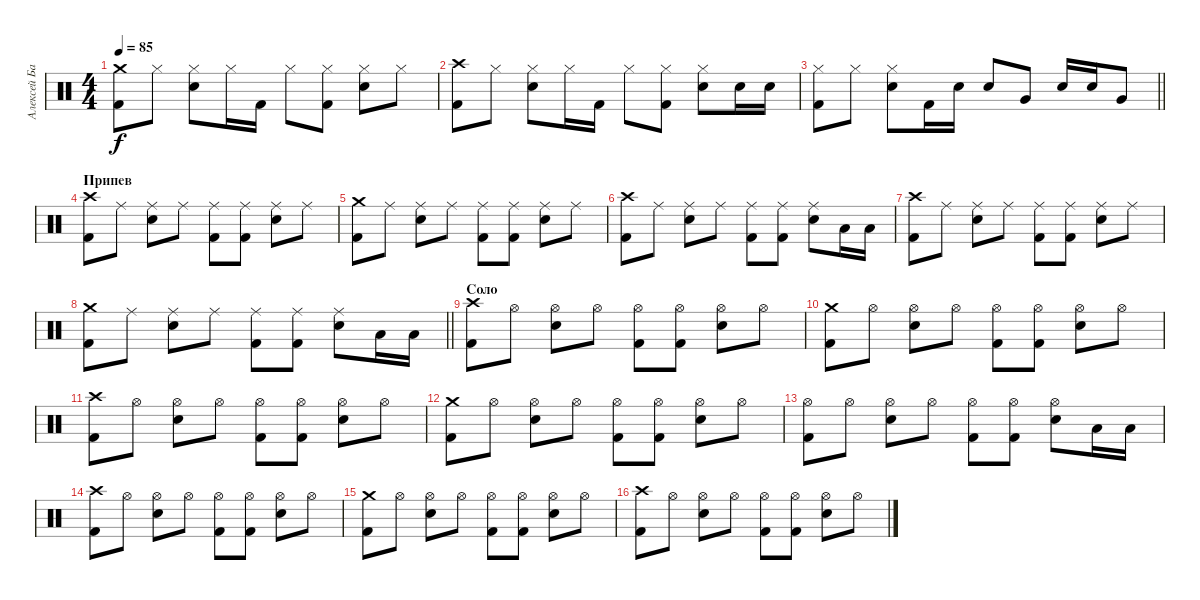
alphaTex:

\track ("Алексей Барзилович" "Алексей Ба") {instrument percussion}
\staff {score}
\articulation defaults
\ts (4 4)
\tempo 85
\clef neutral
\ks c
("Crash medium (hit)" "Kick (hit) 2").8{dy f} "Hi-Hat (closed)".8 ("Hi-Hat (closed)" "Electric Snare (hit)").8 "Hi-Hat (closed)".16 "Kick (hit) 2".16 "Hi-Hat (closed)".8 ("Hi-Hat (closed)" "Kick (hit) 2").8 ("Hi-Hat (closed)" "Electric Snare (hit)").8 "Hi-Hat (closed)".8 |
("Crash high (hit)" "Kick (hit) 2").8 "Hi-Hat (closed)".8 ("Hi-Hat (closed)" "Electric Snare (hit)").8 "Hi-Hat (closed)".16 "Kick (hit) 2".16 "Hi-Hat (closed)".8 ("Hi-Hat (closed)" "Kick (hit) 2").8 ("Hi-Hat (closed)" "Electric Snare (hit)").8 "Electric Snare (hit)".16 "Electric Snare (hit)".16 |
\barLineRight lightlight
("Hi-Hat (closed)" "Kick (hit) 2").8 "Hi-Hat (closed)".8 ("Hi-Hat (closed)" "Electric Snare (hit)").8 "Kick (hit) 2".16 "Electric Snare (hit)".16 "Electric Snare (hit)".8 "Very Low Tom (hit)".8 "Electric Snare (hit)".16 "Electric Snare (hit)".16 "Very Low Tom (hit)".8 |
\section ("" "Припев")
("Crash high (hit)" "Kick (hit) 2").8 "Ride (middle)".8 ("Ride (middle)" "Electric Snare (hit)").8 "Ride (middle)".8 ("Ride (middle)" "Kick (hit) 2").8 ("Ride (middle)" "Kick (hit) 2").8 ("Ride (middle)" "Electric Snare (hit)").8 "Ride (middle)".8 |
("Crash medium (hit)" "Kick (hit) 2").8 "Ride (middle)".8 ("Ride (middle)" "Electric Snare (hit)").8 "Ride (middle)".8 ("Ride (middle)" "Kick (hit) 2").8 ("Ride (middle)" "Kick (hit) 2").8 ("Ride (middle)" "Electric Snare (hit)").8 "Ride (middle)".8 |
("Crash high (hit)" "Kick (hit) 2").8 "Ride (middle)".8 ("Ride (middle)" "Electric Snare (hit)").8 "Ride (middle)".8 ("Ride (middle)" "Kick (hit) 2").8 ("Ride (middle)" "Kick (hit) 2").8 ("Ride (middle)" "Electric Snare (hit)").8 "Low Tom (hit)".16 "Low Tom (hit)".16 |
("Crash high (hit)" "Kick (hit) 2").8 "Ride (middle)".8 ("Ride (middle)" "Electric Snare (hit)").8 "Ride (middle)".8 ("Ride (middle)" "Kick (hit) 2").8 ("Ride (middle)" "Kick (hit) 2").8 ("Ride (middle)" "Electric Snare (hit)").8 "Ride (middle)".8 |
\barLineRight lightlight
("Crash medium (hit)" "Kick (hit) 2").8 "Ride (middle)".8 ("Ride (middle)" "Electric Snare (hit)").8 "Ride (middle)".8 ("Ride (middle)" "Kick (hit) 2").8 ("Ride (middle)" "Kick (hit) 2").8 ("Ride (middle)" "Electric Snare (hit)").8 "Low Tom (hit)".16 "Low Tom (hit)".16 |
\section ("" "Соло")
("Crash high (hit)" "Kick (hit) 2").8 "Hi-Hat (open)".8 ("Hi-Hat (open)" "Electric Snare (hit)").8 "Hi-Hat (open)".8 ("Hi-Hat (open)" "Kick (hit) 2").8 ("Hi-Hat (open)" "Kick (hit) 2").8 ("Hi-Hat (open)" "Electric Snare (hit)").8 "Hi-Hat (open)".8 |
("Crash medium (hit)" "Kick (hit) 2").8 "Hi-Hat (open)".8 ("Hi-Hat (open)" "Electric Snare (hit)").8 "Hi-Hat (open)".8 ("Hi-Hat (open)" "Kick (hit) 2").8 ("Hi-Hat (open)" "Kick (hit) 2").8 ("Hi-Hat (open)" "Electric Snare (hit)").8 "Hi-Hat (open)".8 |
("Crash high (hit)" "Kick (hit) 2").8 "Hi-Hat (open)".8 ("Hi-Hat (open)" "Electric Snare (hit)").8 "Hi-Hat (open)".8 ("Hi-Hat (open)" "Kick (hit) 2").8 ("Hi-Hat (open)" "Kick (hit) 2").8 ("Hi-Hat (open)" "Electric Snare (hit)").8 "Hi-Hat (open)".8 |
("Crash medium (hit)" "Kick (hit) 2").8 "Hi-Hat (open)".8 ("Hi-Hat (open)" "Electric Snare (hit)").8 "Hi-Hat (open)".8 ("Hi-Hat (open)" "Kick (hit) 2").8 ("Hi-Hat (open)" "Kick (hit) 2").8 ("Hi-Hat (open)" "Electric Snare (hit)").8 "Hi-Hat (open)".8 |
("Hi-Hat (open)" "Kick (hit) 2").8 "Hi-Hat (open)".8 ("Hi-Hat (open)" "Electric Snare (hit)").8 "Hi-Hat (open)".8 ("Hi-Hat (open)" "Kick (hit) 2").8 ("Hi-Hat (open)" "Kick (hit) 2").8 ("Hi-Hat (open)" "Electric Snare (hit)").8 "Low Tom (hit)".16 "Low Tom (hit)".16 |
("Crash high (hit)" "Kick (hit) 2").8 "Hi-Hat (open)".8 ("Hi-Hat (open)" "Electric Snare (hit)").8 "Hi-Hat (open)".8 ("Hi-Hat (open)" "Kick (hit) 2").8 ("Hi-Hat (open)" "Kick (hit) 2").8 ("Hi-Hat (open)" "Electric Snare (hit)").8 "Hi-Hat (open)".8 |
("Crash medium (hit)" "Kick (hit) 2").8 "Hi-Hat (open)".8 ("Hi-Hat (open)" "Electric Snare (hit)").8 "Hi-Hat (open)".8 ("Hi-Hat (open)" "Kick (hit) 2").8 ("Hi-Hat (open)" "Kick (hit) 2").8 ("Hi-Hat (open)" "Electric Snare (hit)").8 "Hi-Hat (open)".8 |
("Crash high (hit)" "Kick (hit) 2").8 "Hi-Hat (open)".8 ("Hi-Hat (open)" "Electric Snare (hit)").8 "Hi-Hat (open)".8 ("Hi-Hat (open)" "Kick (hit) 2").8 ("Hi-Hat (open)" "Kick (hit) 2").8 ("Hi-Hat (open)" "Electric Snare (hit)").8 "Hi-Hat (open)".8
